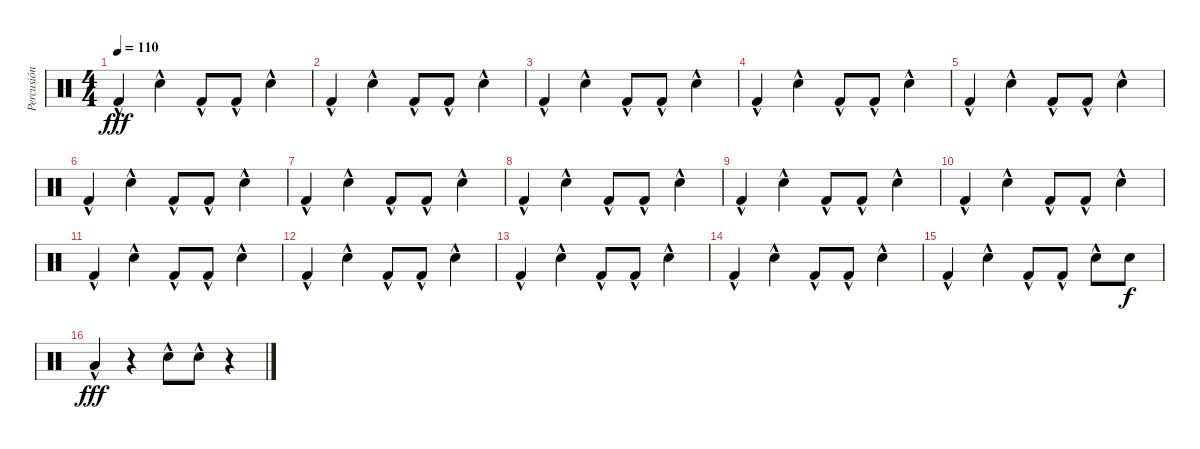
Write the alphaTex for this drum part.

\track ("Percusión" "Percusión") {instrument percussion}
\staff {score}
\articulation defaults
\ts (4 4)
\tempo 110
\clef neutral
\ks c "Kick (hit) 2"{hac}.4{dy fff} "Electric Snare (hit)"{hac}.4 "Kick (hit) 2"{hac}.8 "Kick (hit) 2"{hac}.8 "Electric Snare (hit)"{hac}.4
|
"Kick (hit) 2"{hac}.4 "Electric Snare (hit)"{hac}.4 "Kick (hit) 2"{hac}.8 "Kick (hit) 2"{hac}.8 "Electric Snare (hit)"{hac}.4 |
"Kick (hit) 2"{hac}.4 "Electric Snare (hit)"{hac}.4 "Kick (hit) 2"{hac}.8 "Kick (hit) 2"{hac}.8 "Electric Snare (hit)"{hac}.4 |
"Kick (hit) 2"{hac}.4 "Electric Snare (hit)"{hac}.4 "Kick (hit) 2"{hac}.8 "Kick (hit) 2"{hac}.8 "Electric Snare (hit)"{hac}.4 |
"Kick (hit) 2"{hac}.4 "Electric Snare (hit)"{hac}.4 "Kick (hit) 2"{hac}.8 "Kick (hit) 2"{hac}.8 "Electric Snare (hit)"{hac}.4 |
"Kick (hit) 2"{hac}.4 "Electric Snare (hit)"{hac}.4 "Kick (hit) 2"{hac}.8 "Kick (hit) 2"{hac}.8 "Electric Snare (hit)"{hac}.4 |
"Kick (hit) 2"{hac}.4 "Electric Snare (hit)"{hac}.4 "Kick (hit) 2"{hac}.8 "Kick (hit) 2"{hac}.8 "Electric Snare (hit)"{hac}.4 |
"Kick (hit) 2"{hac}.4 "Electric Snare (hit)"{hac}.4 "Kick (hit) 2"{hac}.8 "Kick (hit) 2"{hac}.8 "Electric Snare (hit)"{hac}.4 |
"Kick (hit) 2"{hac}.4 "Electric Snare (hit)"{hac}.4 "Kick (hit) 2"{hac}.8 "Kick (hit) 2"{hac}.8 "Electric Snare (hit)"{hac}.4 |
"Kick (hit) 2"{hac}.4 "Electric Snare (hit)"{hac}.4 "Kick (hit) 2"{hac}.8 "Kick (hit) 2"{hac}.8 "Electric Snare (hit)"{hac}.4 |
"Kick (hit) 2"{hac}.4 "Electric Snare (hit)"{hac}.4 "Kick (hit) 2"{hac}.8 "Kick (hit) 2"{hac}.8 "Electric Snare (hit)"{hac}.4 |
"Kick (hit) 2"{hac}.4 "Electric Snare (hit)"{hac}.4 "Kick (hit) 2"{hac}.8 "Kick (hit) 2"{hac}.8 "Electric Snare (hit)"{hac}.4 |
"Kick (hit) 2"{hac}.4 "Electric Snare (hit)"{hac}.4 "Kick (hit) 2"{hac}.8 "Kick (hit) 2"{hac}.8 "Electric Snare (hit)"{hac}.4 |
"Kick (hit) 2"{hac}.4 "Electric Snare (hit)"{hac}.4 "Kick (hit) 2"{hac}.8 "Kick (hit) 2"{hac}.8 "Electric Snare (hit)"{hac}.4 |
"Kick (hit) 2"{hac}.4 "Electric Snare (hit)"{hac}.4 "Kick (hit) 2"{hac}.8 "Kick (hit) 2"{hac}.8 "Electric Snare (hit)"{hac}.8 "Electric Snare (hit)".8{dy f} |
"Low Floor Tom (hit)"{hac}.4{dy fff} r.4 "Snare (hit) 2"{hac}.8 "Snare (hit) 2"{hac}.8 r.4
